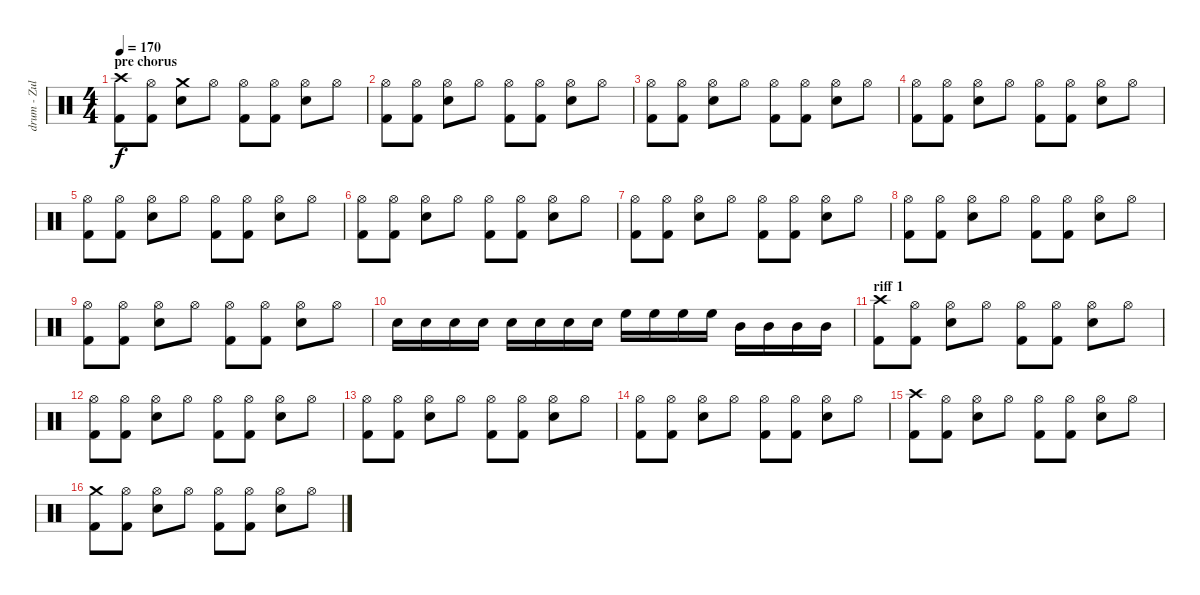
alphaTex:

\track ("drum - Zul ???" "drum - Zul") {instrument percussion}
\staff {score}
\articulation defaults
\ts (4 4)
\section ("" "pre chorus")
\tempo 170
\clef neutral
\ks c
("Crash high (hit)" "Kick (hit) 2").8{dy f} ("Hi-Hat (open)" "Kick (hit) 2").8 ("Crash medium (hit)" "Snare (hit) 2").8 "Hi-Hat (open)".8 ("Hi-Hat (open)" "Kick (hit) 2").8 ("Hi-Hat (open)" "Kick (hit) 2").8 ("Hi-Hat (open)" "Snare (hit) 2").8 "Hi-Hat (open)".8 |
("Hi-Hat (open)" "Kick (hit) 2").8 ("Hi-Hat (open)" "Kick (hit) 2").8 ("Hi-Hat (open)" "Snare (hit) 2").8 "Hi-Hat (open)".8 ("Hi-Hat (open)" "Kick (hit) 2").8 ("Hi-Hat (open)" "Kick (hit) 2").8 ("Hi-Hat (open)" "Snare (hit) 2").8 "Hi-Hat (open)".8 |
("Hi-Hat (open)" "Kick (hit) 2").8 ("Hi-Hat (open)" "Kick (hit) 2").8 ("Hi-Hat (open)" "Snare (hit) 2").8 "Hi-Hat (open)".8 ("Hi-Hat (open)" "Kick (hit) 2").8 ("Hi-Hat (open)" "Kick (hit) 2").8 ("Hi-Hat (open)" "Snare (hit) 2").8 "Hi-Hat (open)".8 |
("Hi-Hat (open)" "Kick (hit) 2").8 ("Hi-Hat (open)" "Kick (hit) 2").8 ("Hi-Hat (open)" "Snare (hit) 2").8 "Hi-Hat (open)".8 ("Hi-Hat (open)" "Kick (hit) 2").8 ("Hi-Hat (open)" "Kick (hit) 2").8 ("Hi-Hat (open)" "Snare (hit) 2").8 "Hi-Hat (open)".8 |
("Hi-Hat (open)" "Kick (hit) 2").8 ("Hi-Hat (open)" "Kick (hit) 2").8 ("Hi-Hat (open)" "Snare (hit) 2").8 "Hi-Hat (open)".8 ("Hi-Hat (open)" "Kick (hit) 2").8 ("Hi-Hat (open)" "Kick (hit) 2").8 ("Hi-Hat (open)" "Snare (hit) 2").8 "Hi-Hat (open)".8 |
("Hi-Hat (open)" "Kick (hit) 2").8 ("Hi-Hat (open)" "Kick (hit) 2").8 ("Hi-Hat (open)" "Snare (hit) 2").8 "Hi-Hat (open)".8 ("Hi-Hat (open)" "Kick (hit) 2").8 ("Hi-Hat (open)" "Kick (hit) 2").8 ("Hi-Hat (open)" "Snare (hit) 2").8 "Hi-Hat (open)".8 |
("Hi-Hat (open)" "Kick (hit) 2").8 ("Hi-Hat (open)" "Kick (hit) 2").8 ("Hi-Hat (open)" "Snare (hit) 2").8 "Hi-Hat (open)".8 ("Hi-Hat (open)" "Kick (hit) 2").8 ("Hi-Hat (open)" "Kick (hit) 2").8 ("Hi-Hat (open)" "Snare (hit) 2").8 "Hi-Hat (open)".8 |
("Hi-Hat (open)" "Kick (hit) 2").8 ("Hi-Hat (open)" "Kick (hit) 2").8 ("Hi-Hat (open)" "Snare (hit) 2").8 "Hi-Hat (open)".8 ("Hi-Hat (open)" "Kick (hit) 2").8 ("Hi-Hat (open)" "Kick (hit) 2").8 ("Hi-Hat (open)" "Snare (hit) 2").8 "Hi-Hat (open)".8 |
("Hi-Hat (open)" "Kick (hit) 2").8 ("Hi-Hat (open)" "Kick (hit) 2").8 ("Hi-Hat (open)" "Snare (hit) 2").8 "Hi-Hat (open)".8 ("Hi-Hat (open)" "Kick (hit) 2").8 ("Hi-Hat (open)" "Kick (hit) 2").8 ("Hi-Hat (open)" "Snare (hit) 2").8 "Hi-Hat (open)".8 |
"Snare (hit) 2".16 "Snare (hit) 2".16 "Snare (hit) 2".16 "Snare (hit) 2".16 "Snare (hit) 2".16 "Snare (hit) 2".16 "Snare (hit) 2".16 "Snare (hit) 2".16 "High Floor Tom (hit)".16 "High Floor Tom (hit)".16 "High Floor Tom (hit)".16 "High Floor Tom (hit)".16 "Mid Tom (hit)".16 "Mid Tom (hit)".16 "Mid Tom (hit)".16 "Mid Tom (hit)".16 |
\section ("" "riff 1")
("Crash high (hit)" "Kick (hit) 2").8 ("Hi-Hat (open)" "Kick (hit) 2").8 ("Hi-Hat (open)" "Snare (hit) 2").8 "Hi-Hat (open)".8 ("Hi-Hat (open)" "Kick (hit) 2").8 ("Hi-Hat (open)" "Kick (hit) 2").8 ("Hi-Hat (open)" "Snare (hit) 2").8 "Hi-Hat (open)".8 |
("Hi-Hat (open)" "Kick (hit) 2").8 ("Hi-Hat (open)" "Kick (hit) 2").8 ("Hi-Hat (open)" "Snare (hit) 2").8 "Hi-Hat (open)".8 ("Hi-Hat (open)" "Kick (hit) 2").8 ("Hi-Hat (open)" "Kick (hit) 2").8 ("Hi-Hat (open)" "Snare (hit) 2").8 "Hi-Hat (open)".8 |
("Hi-Hat (open)" "Kick (hit) 2").8 ("Hi-Hat (open)" "Kick (hit) 2").8 ("Hi-Hat (open)" "Snare (hit) 2").8 "Hi-Hat (open)".8 ("Hi-Hat (open)" "Kick (hit) 2").8 ("Hi-Hat (open)" "Kick (hit) 2").8 ("Hi-Hat (open)" "Snare (hit) 2").8 "Hi-Hat (open)".8 |
("Hi-Hat (open)" "Kick (hit) 2").8 ("Hi-Hat (open)" "Kick (hit) 2").8 ("Hi-Hat (open)" "Snare (hit) 2").8 "Hi-Hat (open)".8 ("Hi-Hat (open)" "Kick (hit) 2").8 ("Hi-Hat (open)" "Kick (hit) 2").8 ("Hi-Hat (open)" "Snare (hit) 2").8 "Hi-Hat (open)".8 |
("Crash high (hit)" "Kick (hit) 2").8 ("Hi-Hat (open)" "Kick (hit) 2").8 ("Hi-Hat (open)" "Snare (hit) 2").8 "Hi-Hat (open)".8 ("Hi-Hat (open)" "Kick (hit) 2").8 ("Hi-Hat (open)" "Kick (hit) 2").8 ("Hi-Hat (open)" "Snare (hit) 2").8 "Hi-Hat (open)".8 |
("Crash medium (hit)" "Kick (hit) 2").8 ("Hi-Hat (open)" "Kick (hit) 2").8 ("Hi-Hat (open)" "Snare (hit) 2").8 "Hi-Hat (open)".8 ("Hi-Hat (open)" "Kick (hit) 2").8 ("Hi-Hat (open)" "Kick (hit) 2").8 ("Hi-Hat (open)" "Snare (hit) 2").8 "Hi-Hat (open)".8
